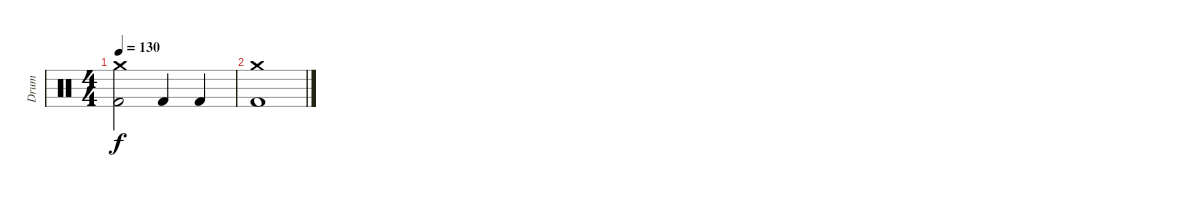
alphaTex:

\track ("Drum" "Drum") {instrument percussion}
\staff {score}
\articulation defaults
\ts (4 4)
\tempo 130
\clef neutral
\ks c
("Kick (hit) 2" "Crash medium (hit)").2{dy f} "Kick (hit) 2".4 "Kick (hit) 2".4 |
("Kick (hit) 2" "Crash medium (hit)").1
